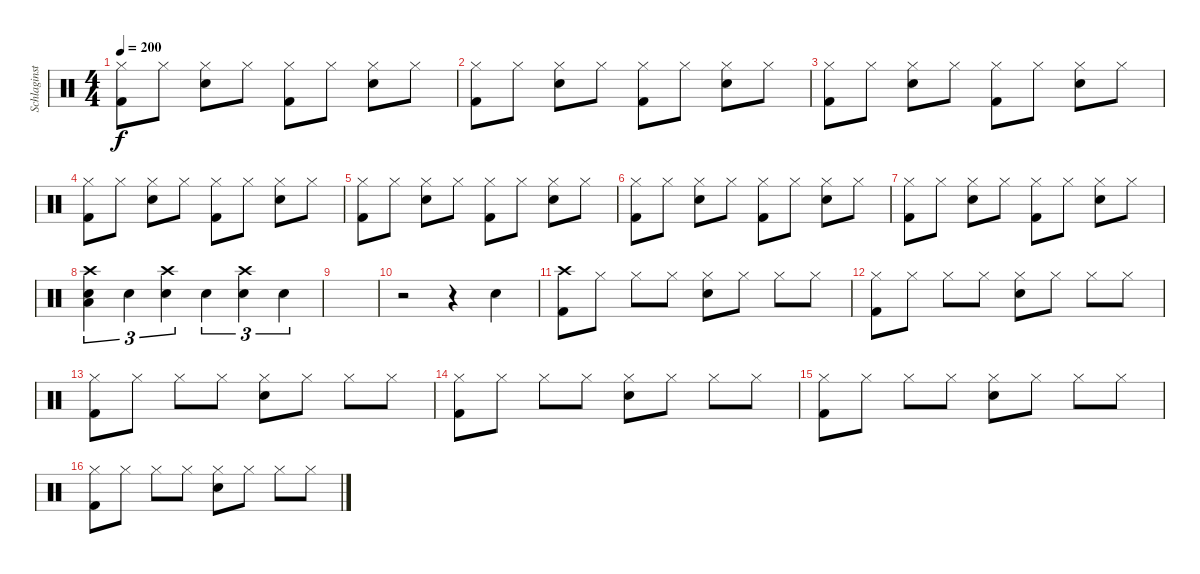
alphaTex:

\track ("Schlaginstrumente - Auswahl" "Schlaginst") {instrument percussion}
\staff {score}
\articulation defaults
\ts (4 4)
\tempo 200
\clef neutral
\ks c
("Hi-Hat (closed)" "Kick (hit) 2").8{dy f} "Hi-Hat (closed)".8 ("Hi-Hat (closed)" "Snare (hit) 2").8 "Hi-Hat (closed)".8 ("Hi-Hat (closed)" "Kick (hit) 2").8 "Hi-Hat (closed)".8 ("Hi-Hat (closed)" "Snare (hit) 2").8 "Hi-Hat (closed)".8 |
("Hi-Hat (closed)" "Kick (hit) 2").8 "Hi-Hat (closed)".8 ("Hi-Hat (closed)" "Snare (hit) 2").8 "Hi-Hat (closed)".8 ("Hi-Hat (closed)" "Kick (hit) 2").8 "Hi-Hat (closed)".8 ("Hi-Hat (closed)" "Snare (hit) 2").8 "Hi-Hat (closed)".8 |
("Hi-Hat (closed)" "Kick (hit) 2").8 "Hi-Hat (closed)".8 ("Hi-Hat (closed)" "Snare (hit) 2").8 "Hi-Hat (closed)".8 ("Hi-Hat (closed)" "Kick (hit) 2").8 "Hi-Hat (closed)".8 ("Hi-Hat (closed)" "Snare (hit) 2").8 "Hi-Hat (closed)".8 |
("Hi-Hat (closed)" "Kick (hit) 2").8 "Hi-Hat (closed)".8 ("Hi-Hat (closed)" "Snare (hit) 2").8 "Hi-Hat (closed)".8 ("Hi-Hat (closed)" "Kick (hit) 2").8 "Hi-Hat (closed)".8 ("Hi-Hat (closed)" "Snare (hit) 2").8 "Hi-Hat (closed)".8 |
("Hi-Hat (closed)" "Kick (hit) 2").8 "Hi-Hat (closed)".8 ("Hi-Hat (closed)" "Snare (hit) 2").8 "Hi-Hat (closed)".8 ("Hi-Hat (closed)" "Kick (hit) 2").8 "Hi-Hat (closed)".8 ("Hi-Hat (closed)" "Snare (hit) 2").8 "Hi-Hat (closed)".8 |
("Hi-Hat (closed)" "Kick (hit) 2").8 "Hi-Hat (closed)".8 ("Hi-Hat (closed)" "Snare (hit) 2").8 "Hi-Hat (closed)".8 ("Hi-Hat (closed)" "Kick (hit) 2").8 "Hi-Hat (closed)".8 ("Hi-Hat (closed)" "Snare (hit) 2").8 "Hi-Hat (closed)".8 |
("Hi-Hat (closed)" "Kick (hit) 2").8 "Hi-Hat (closed)".8 ("Hi-Hat (closed)" "Snare (hit) 2").8 "Hi-Hat (closed)".8 ("Hi-Hat (closed)" "Kick (hit) 2").8 "Hi-Hat (closed)".8 ("Hi-Hat (closed)" "Snare (hit) 2").8 "Hi-Hat (closed)".8 |
("Crash high (hit)" "Snare (hit) 2" "Low Tom (hit)").4{tu (3 2)} "Snare (hit) 2".4{tu (3 2)} ("Crash high (hit)" "Snare (hit) 2").4{tu (3 2)} "Snare (hit) 2".4{tu (3 2)} ("Crash high (hit)" "Snare (hit) 2").4{tu (3 2)} "Snare (hit) 2".4{tu (3 2)} |
|
r.2 r.4 "Snare (hit) 2".4 |
("Crash high (hit)" "Kick (hit) 2").8 "Hi-Hat (closed)".8 "Hi-Hat (closed)".8 "Hi-Hat (closed)".8 ("Hi-Hat (closed)" "Snare (hit) 2").8 "Hi-Hat (closed)".8 "Hi-Hat (closed)".8 "Hi-Hat (closed)".8 |
("Hi-Hat (closed)" "Kick (hit) 2").8 "Hi-Hat (closed)".8 "Hi-Hat (closed)".8 "Hi-Hat (closed)".8 ("Hi-Hat (closed)" "Snare (hit) 2").8 "Hi-Hat (closed)".8 "Hi-Hat (closed)".8 "Hi-Hat (closed)".8 |
("Hi-Hat (closed)" "Kick (hit) 2").8 "Hi-Hat (closed)".8 "Hi-Hat (closed)".8 "Hi-Hat (closed)".8 ("Hi-Hat (closed)" "Snare (hit) 2").8 "Hi-Hat (closed)".8 "Hi-Hat (closed)".8 "Hi-Hat (closed)".8 |
("Hi-Hat (closed)" "Kick (hit) 2").8 "Hi-Hat (closed)".8 "Hi-Hat (closed)".8 "Hi-Hat (closed)".8 ("Hi-Hat (closed)" "Snare (hit) 2").8 "Hi-Hat (closed)".8 "Hi-Hat (closed)".8 "Hi-Hat (closed)".8 |
("Hi-Hat (closed)" "Kick (hit) 2").8 "Hi-Hat (closed)".8 "Hi-Hat (closed)".8 "Hi-Hat (closed)".8 ("Hi-Hat (closed)" "Snare (hit) 2").8 "Hi-Hat (closed)".8 "Hi-Hat (closed)".8 "Hi-Hat (closed)".8 |
("Hi-Hat (closed)" "Kick (hit) 2").8 "Hi-Hat (closed)".8 "Hi-Hat (closed)".8 "Hi-Hat (closed)".8 ("Hi-Hat (closed)" "Snare (hit) 2").8 "Hi-Hat (closed)".8 "Hi-Hat (closed)".8 "Hi-Hat (closed)".8
